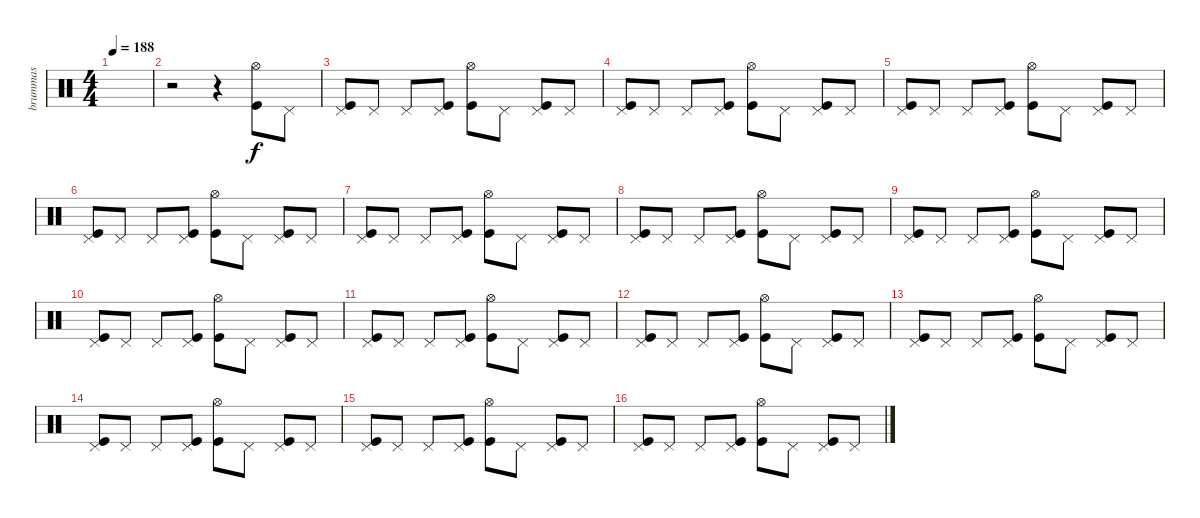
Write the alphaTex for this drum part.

\track ("brummas" "brummas") {instrument percussion}
\staff {score}
\articulation defaults
\ts (4 4)
\tempo 188
\clef neutral
\ks c
|
r.2 r.4 ("Hi-Hat (open)" "Kick (hit)").8 "Pedal Hi-Hat (hit)".8 |
("Pedal Hi-Hat (hit)" "Kick (hit)").8 "Pedal Hi-Hat (hit)".8 "Pedal Hi-Hat (hit)".8 ("Pedal Hi-Hat (hit)" "Kick (hit)").8 ("Hi-Hat (open)" "Kick (hit)").8 "Pedal Hi-Hat (hit)".8 ("Pedal Hi-Hat (hit)" "Kick (hit)").8 "Pedal Hi-Hat (hit)".8 |
("Pedal Hi-Hat (hit)" "Kick (hit)").8 "Pedal Hi-Hat (hit)".8 "Pedal Hi-Hat (hit)".8 ("Pedal Hi-Hat (hit)" "Kick (hit)").8 ("Hi-Hat (open)" "Kick (hit)").8 "Pedal Hi-Hat (hit)".8 ("Pedal Hi-Hat (hit)" "Kick (hit)").8 "Pedal Hi-Hat (hit)".8 |
("Pedal Hi-Hat (hit)" "Kick (hit)").8 "Pedal Hi-Hat (hit)".8 "Pedal Hi-Hat (hit)".8 ("Pedal Hi-Hat (hit)" "Kick (hit)").8 ("Hi-Hat (open)" "Kick (hit)").8 "Pedal Hi-Hat (hit)".8 ("Pedal Hi-Hat (hit)" "Kick (hit)").8 "Pedal Hi-Hat (hit)".8 |
("Pedal Hi-Hat (hit)" "Kick (hit)").8 "Pedal Hi-Hat (hit)".8 "Pedal Hi-Hat (hit)".8 ("Pedal Hi-Hat (hit)" "Kick (hit)").8 ("Hi-Hat (open)" "Kick (hit)").8 "Pedal Hi-Hat (hit)".8 ("Pedal Hi-Hat (hit)" "Kick (hit)").8 "Pedal Hi-Hat (hit)".8 |
("Pedal Hi-Hat (hit)" "Kick (hit)").8 "Pedal Hi-Hat (hit)".8 "Pedal Hi-Hat (hit)".8 ("Pedal Hi-Hat (hit)" "Kick (hit)").8 ("Hi-Hat (open)" "Kick (hit)").8 "Pedal Hi-Hat (hit)".8 ("Pedal Hi-Hat (hit)" "Kick (hit)").8 "Pedal Hi-Hat (hit)".8 |
("Pedal Hi-Hat (hit)" "Kick (hit)").8 "Pedal Hi-Hat (hit)".8 "Pedal Hi-Hat (hit)".8 ("Pedal Hi-Hat (hit)" "Kick (hit)").8 ("Hi-Hat (open)" "Kick (hit)").8 "Pedal Hi-Hat (hit)".8 ("Pedal Hi-Hat (hit)" "Kick (hit)").8 "Pedal Hi-Hat (hit)".8 |
("Pedal Hi-Hat (hit)" "Kick (hit)").8 "Pedal Hi-Hat (hit)".8 "Pedal Hi-Hat (hit)".8 ("Pedal Hi-Hat (hit)" "Kick (hit)").8 ("Hi-Hat (open)" "Kick (hit)").8 "Pedal Hi-Hat (hit)".8 ("Pedal Hi-Hat (hit)" "Kick (hit)").8 "Pedal Hi-Hat (hit)".8 |
("Pedal Hi-Hat (hit)" "Kick (hit)").8 "Pedal Hi-Hat (hit)".8 "Pedal Hi-Hat (hit)".8 ("Pedal Hi-Hat (hit)" "Kick (hit)").8 ("Hi-Hat (open)" "Kick (hit)").8 "Pedal Hi-Hat (hit)".8 ("Pedal Hi-Hat (hit)" "Kick (hit)").8 "Pedal Hi-Hat (hit)".8 |
("Pedal Hi-Hat (hit)" "Kick (hit)").8 "Pedal Hi-Hat (hit)".8 "Pedal Hi-Hat (hit)".8 ("Pedal Hi-Hat (hit)" "Kick (hit)").8 ("Hi-Hat (open)" "Kick (hit)").8 "Pedal Hi-Hat (hit)".8 ("Pedal Hi-Hat (hit)" "Kick (hit)").8 "Pedal Hi-Hat (hit)".8 |
("Pedal Hi-Hat (hit)" "Kick (hit)").8 "Pedal Hi-Hat (hit)".8 "Pedal Hi-Hat (hit)".8 ("Pedal Hi-Hat (hit)" "Kick (hit)").8 ("Hi-Hat (open)" "Kick (hit)").8 "Pedal Hi-Hat (hit)".8 ("Pedal Hi-Hat (hit)" "Kick (hit)").8 "Pedal Hi-Hat (hit)".8 |
("Pedal Hi-Hat (hit)" "Kick (hit)").8 "Pedal Hi-Hat (hit)".8 "Pedal Hi-Hat (hit)".8 ("Pedal Hi-Hat (hit)" "Kick (hit)").8 ("Hi-Hat (open)" "Kick (hit)").8 "Pedal Hi-Hat (hit)".8 ("Pedal Hi-Hat (hit)" "Kick (hit)").8 "Pedal Hi-Hat (hit)".8 |
("Pedal Hi-Hat (hit)" "Kick (hit)").8 "Pedal Hi-Hat (hit)".8 "Pedal Hi-Hat (hit)".8 ("Pedal Hi-Hat (hit)" "Kick (hit)").8 ("Hi-Hat (open)" "Kick (hit)").8 "Pedal Hi-Hat (hit)".8 ("Pedal Hi-Hat (hit)" "Kick (hit)").8 "Pedal Hi-Hat (hit)".8 |
("Pedal Hi-Hat (hit)" "Kick (hit)").8 "Pedal Hi-Hat (hit)".8 "Pedal Hi-Hat (hit)".8 ("Pedal Hi-Hat (hit)" "Kick (hit)").8 ("Hi-Hat (open)" "Kick (hit)").8 "Pedal Hi-Hat (hit)".8 ("Pedal Hi-Hat (hit)" "Kick (hit)").8 "Pedal Hi-Hat (hit)".8 |
("Pedal Hi-Hat (hit)" "Kick (hit)").8 "Pedal Hi-Hat (hit)".8 "Pedal Hi-Hat (hit)".8 ("Pedal Hi-Hat (hit)" "Kick (hit)").8 ("Hi-Hat (open)" "Kick (hit)").8 "Pedal Hi-Hat (hit)".8 ("Pedal Hi-Hat (hit)" "Kick (hit)").8 "Pedal Hi-Hat (hit)".8
